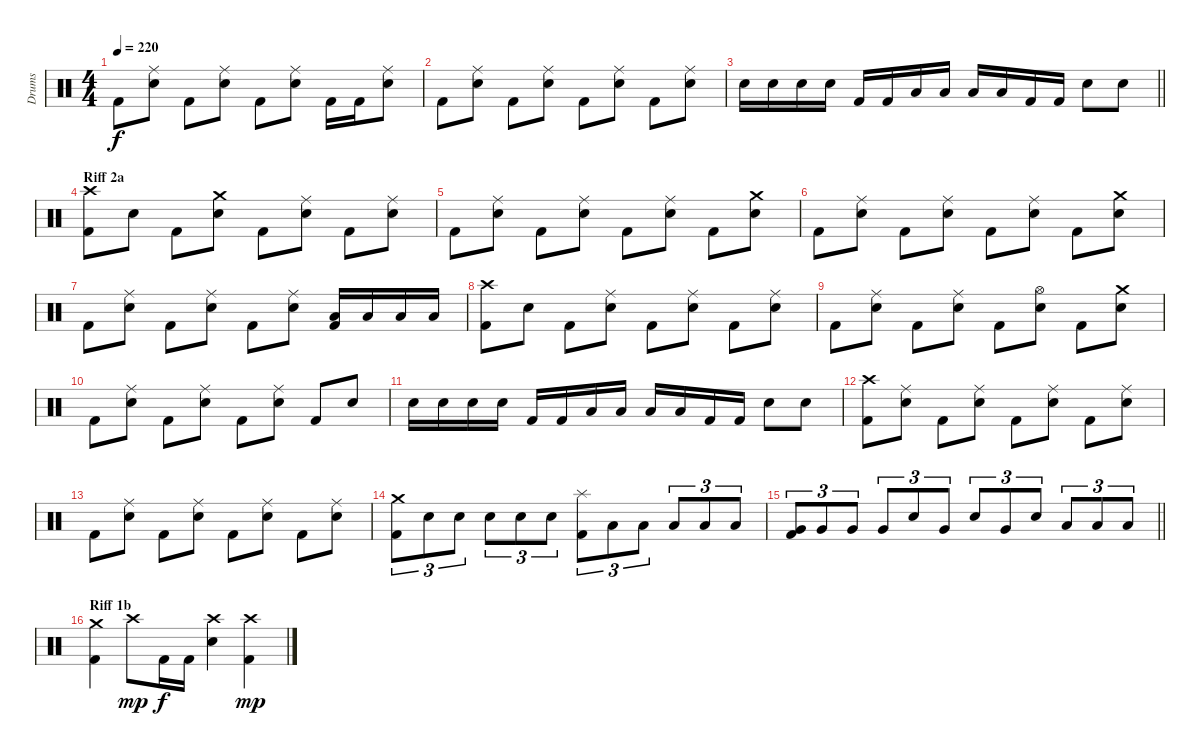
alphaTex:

\track ("Drums" "Drums") {instrument percussion}
\staff {score}
\articulation defaults
\ts (4 4)
\tempo 220
\clef neutral
\ks c "Kick (hit) 2".8{dy f}
("Electric Snare (hit)" "Ride (middle)").8 "Kick (hit) 2".8 ("Electric Snare (hit)" "Ride (middle)").8 "Kick (hit) 2".8 ("Electric Snare (hit)" "Ride (middle)").8 "Kick (hit) 2".16 "Kick (hit) 2".16 ("Electric Snare (hit)" "Ride (middle)").8 |
"Kick (hit) 2".8 ("Electric Snare (hit)" "Ride (middle)").8 "Kick (hit) 2".8 ("Electric Snare (hit)" "Ride (middle)").8 "Kick (hit) 2".8 ("Electric Snare (hit)" "Ride (middle)").8 "Kick (hit) 2".8 ("Electric Snare (hit)" "Ride (middle)").8 |
\barLineRight lightlight "Electric Snare (hit)".16 "Electric Snare (hit)".16 "Electric Snare (hit)".16 "Electric Snare (hit)".16 "Kick (hit) 2".16 "Kick (hit) 2".16 "Low Tom (hit)".16 "Low Tom (hit)".16 "Low Tom (hit)".16 "Low Tom (hit)".16 "Kick (hit) 2".16 "Kick (hit) 2".16 "Electric Snare (hit)".8 "Electric Snare (hit)".8
|
\section ("" "Riff 2a")
("Crash high (hit)" "Kick (hit) 2").8 "Electric Snare (hit)".8 "Kick (hit) 2".8 ("Crash medium (hit)" "Electric Snare (hit)").8 "Kick (hit) 2".8 ("Ride (middle)" "Electric Snare (hit)").8 "Kick (hit) 2".8 ("Electric Snare (hit)" "Ride (middle)").8 |
"Kick (hit) 2".8 ("Ride (middle)" "Electric Snare (hit)").8 "Kick (hit) 2".8 ("Electric Snare (hit)" "Ride (middle)").8 "Kick (hit) 2".8 ("Ride (middle)" "Electric Snare (hit)").8 "Kick (hit) 2".8 ("Electric Snare (hit)" "Crash medium (hit)").8 |
"Kick (hit) 2".8 ("Ride (middle)" "Electric Snare (hit)").8 "Kick (hit) 2".8 ("Electric Snare (hit)" "Ride (middle)").8 "Kick (hit) 2".8 ("Ride (middle)" "Electric Snare (hit)").8 "Kick (hit) 2".8 ("Electric Snare (hit)" "Crash medium (hit)").8 |
"Kick (hit) 2".8 ("Ride (middle)" "Electric Snare (hit)").8 "Kick (hit) 2".8 ("Electric Snare (hit)" "Ride (middle)").8 "Kick (hit) 2".8 ("Ride (middle)" "Electric Snare (hit)").8 ("Kick (hit) 2" "Low Tom (hit)").16 "Low Tom (hit)".16 "Low Tom (hit)".16 "Low Tom (hit)".16 |
("Crash high (hit)" "Kick (hit) 2").8 "Electric Snare (hit)".8 "Kick (hit) 2".8 ("Ride (middle)" "Electric Snare (hit)").8 "Kick (hit) 2".8 ("Ride (middle)" "Electric Snare (hit)").8 "Kick (hit) 2".8 ("Electric Snare (hit)" "Ride (middle)").8 |
"Kick (hit) 2".8 ("Ride (middle)" "Electric Snare (hit)").8 "Kick (hit) 2".8 ("Electric Snare (hit)" "Ride (middle)").8 "Kick (hit) 2".8 ("Hi-Hat (open)" "Electric Snare (hit)").8 "Kick (hit) 2".8 ("Electric Snare (hit)" "Crash medium (hit)").8 |
"Kick (hit) 2".8 ("Ride (middle)" "Electric Snare (hit)").8 "Kick (hit) 2".8 ("Electric Snare (hit)" "Ride (middle)").8 "Kick (hit) 2".8 ("Ride (middle)" "Electric Snare (hit)").8 "Kick (hit) 2".8 "Electric Snare (hit)".8 |
"Electric Snare (hit)".16 "Electric Snare (hit)".16 "Electric Snare (hit)".16 "Electric Snare (hit)".16 "Kick (hit) 2".16 "Kick (hit) 2".16 "Low Tom (hit)".16 "Low Tom (hit)".16 "Low Tom (hit)".16 "Low Tom (hit)".16 "Kick (hit) 2".16 "Kick (hit) 2".16 "Electric Snare (hit)".8 "Electric Snare (hit)".8 |
("Crash high (hit)" "Kick (hit) 2").8 ("Ride (middle)" "Electric Snare (hit)").8 "Kick (hit) 2".8 ("Ride (middle)" "Electric Snare (hit)").8 "Kick (hit) 2".8 ("Ride (middle)" "Electric Snare (hit)").8 "Kick (hit) 2".8 ("Electric Snare (hit)" "Ride (middle)").8 |
"Kick (hit) 2".8 ("Ride (middle)" "Electric Snare (hit)").8 "Kick (hit) 2".8 ("Electric Snare (hit)" "Ride (middle)").8 "Kick (hit) 2".8 ("Ride (middle)" "Electric Snare (hit)").8 "Kick (hit) 2".8 ("Electric Snare (hit)" "Ride (middle)").8 |
("Kick (hit) 2" "Crash medium (hit)").8{tu (3 2)} "Electric Snare (hit)".8{tu (3 2)} "Electric Snare (hit)".8{tu (3 2)} "Electric Snare (hit)".8{tu (3 2)} "Electric Snare (hit)".8{tu (3 2)} "Electric Snare (hit)".8{tu (3 2)} ("Splash (hit)" "Kick (hit) 2").8{tu (3 2)} "Low Tom (hit)".8{tu (3 2)} "Low Tom (hit)".8{tu (3 2)} "Low Tom (hit)".8{tu (3 2)} "Low Tom (hit)".8{tu (3 2)} "Low Tom (hit)".8{tu (3 2)} |
\barLineRight lightlight
("Kick (hit) 2" "Very Low Tom (hit)").8{tu (3 2)} "Very Low Tom (hit)".8{tu (3 2)} "Very Low Tom (hit)".8{tu (3 2)} "Very Low Tom (hit)".8{tu (3 2)} "Electric Snare (hit)".8{tu (3 2)} "Very Low Tom (hit)".8{tu (3 2)} "Electric Snare (hit)".8{tu (3 2)} "Very Low Tom (hit)".8{tu (3 2)} "Electric Snare (hit)".8{tu (3 2)} "Low Floor Tom (hit)".8{tu (3 2)} "Low Floor Tom (hit)".8{tu (3 2)} "Low Floor Tom (hit)".8{tu (3 2)} |
\section ("" "Riff 1b")
("Kick (hit) 2" "Crash medium (hit)").4 "Crash high (hit)".8{dy mp} "Kick (hit) 2".16{dy f} "Kick (hit) 2".16 ("Crash high (hit)" "Electric Snare (hit)").4 ("Crash high (hit)" "Kick (hit) 2").4{dy mp}
